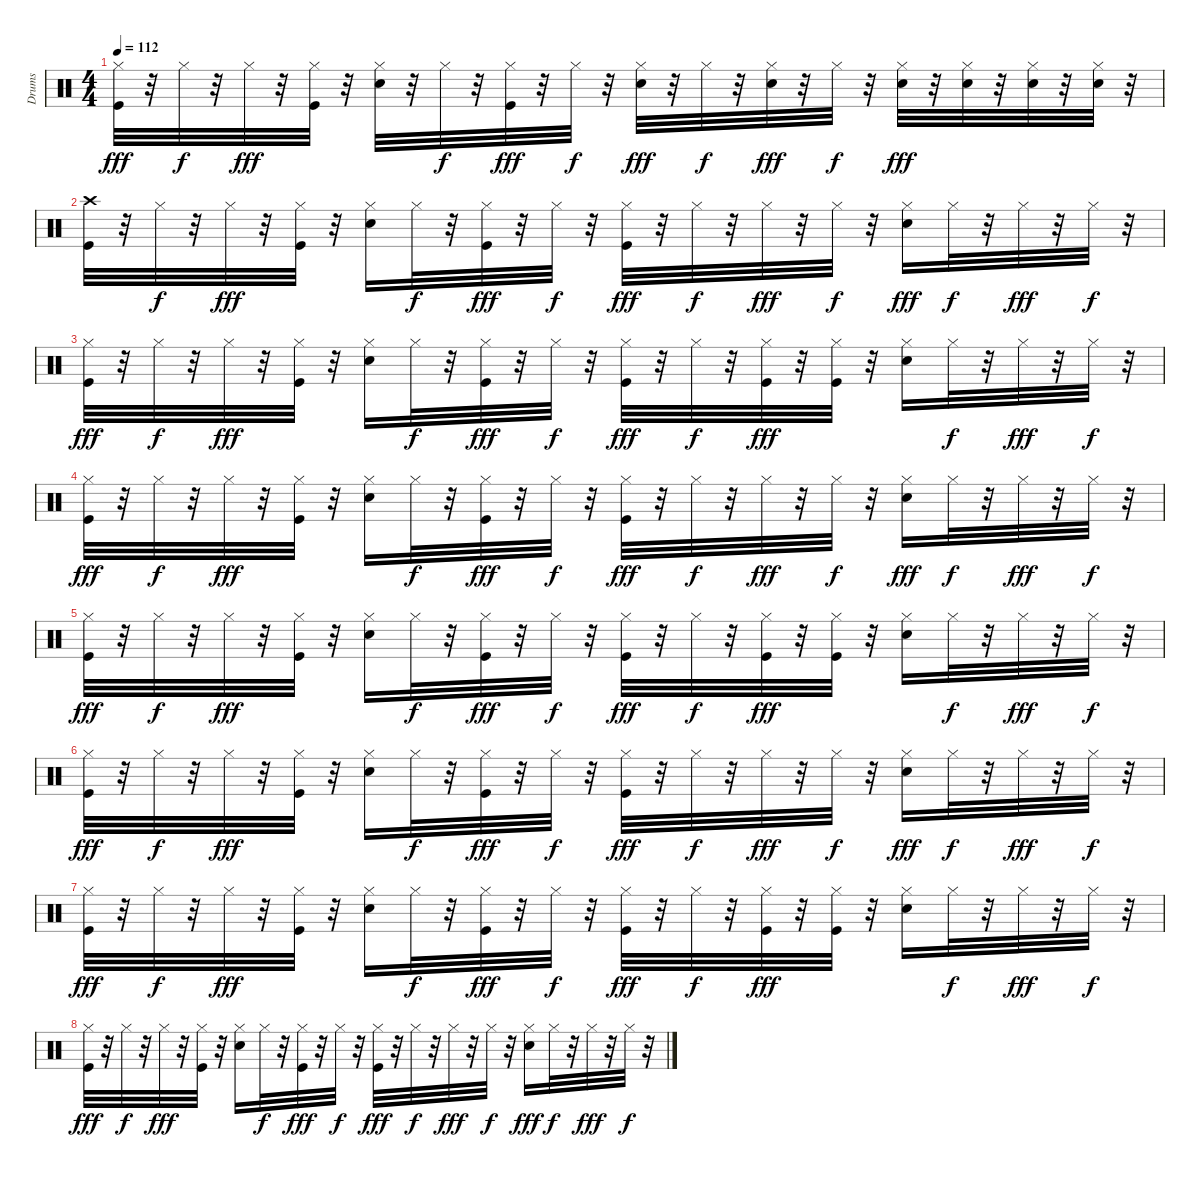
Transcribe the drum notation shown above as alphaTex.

\track ("Drums" "Drums") {instrument percussion}
\staff {score}
\articulation defaults
\ts (4 4)
\tempo 112
\clef neutral
\ks c
("Kick (hit)" "Hi-Hat (closed)").32{dy fff} r.32 "Hi-Hat (closed)".32{dy f} r.32 "Hi-Hat (closed)".32{dy fff} r.32 ("Kick (hit)" "Hi-Hat (closed)").32 r.32 ("Snare (hit) 2" "Hi-Hat (closed)").32 r.32 "Hi-Hat (closed)".32{dy f} r.32 ("Kick (hit)" "Hi-Hat (closed)").32{dy fff} r.32 "Hi-Hat (closed)".32{dy f} r.32 ("Snare (hit) 2" "Hi-Hat (closed)").32{dy fff} r.32 "Hi-Hat (closed)".32{dy f} r.32 ("Snare (hit) 2" "Hi-Hat (closed)").32{dy fff} r.32 "Hi-Hat (closed)".32{dy f} r.32 ("Snare (hit) 2" "Hi-Hat (closed)").32{dy fff} r.32 ("Snare (hit) 2" "Hi-Hat (closed)").32 r.32 ("Snare (hit) 2" "Hi-Hat (closed)").32 r.32 ("Snare (hit) 2" "Hi-Hat (closed)").32 r.32 |
("Kick (hit)" "Crash high (hit)").32 r.32 "Hi-Hat (closed)".32{dy f} r.32 "Hi-Hat (closed)".32{dy fff} r.32 ("Kick (hit)" "Hi-Hat (closed)").32 r.32 ("Snare (hit) 2" "Hi-Hat (closed)").16 "Hi-Hat (closed)".32{dy f} r.32 ("Kick (hit)" "Hi-Hat (closed)").32{dy fff} r.32 "Hi-Hat (closed)".32{dy f} r.32 ("Kick (hit)" "Hi-Hat (closed)").32{dy fff} r.32 "Hi-Hat (closed)".32{dy f} r.32 "Hi-Hat (closed)".32{dy fff} r.32 "Hi-Hat (closed)".32{dy f} r.32 ("Snare (hit) 2" "Hi-Hat (closed)").16{dy fff} "Hi-Hat (closed)".32{dy f} r.32 "Hi-Hat (closed)".32{dy fff} r.32 "Hi-Hat (closed)".32{dy f} r.32 |
("Kick (hit)" "Hi-Hat (closed)").32{dy fff} r.32 "Hi-Hat (closed)".32{dy f} r.32 "Hi-Hat (closed)".32{dy fff} r.32 ("Kick (hit)" "Hi-Hat (closed)").32 r.32 ("Snare (hit) 2" "Hi-Hat (closed)").16 "Hi-Hat (closed)".32{dy f} r.32 ("Kick (hit)" "Hi-Hat (closed)").32{dy fff} r.32 "Hi-Hat (closed)".32{dy f} r.32 ("Kick (hit)" "Hi-Hat (closed)").32{dy fff} r.32 "Hi-Hat (closed)".32{dy f} r.32 ("Kick (hit)" "Hi-Hat (closed)").32{dy fff} r.32 ("Kick (hit)" "Hi-Hat (closed)").32 r.32 ("Snare (hit) 2" "Hi-Hat (closed)").16 "Hi-Hat (closed)".32{dy f} r.32 "Hi-Hat (closed)".32{dy fff} r.32 "Hi-Hat (closed)".32{dy f} r.32 |
("Kick (hit)" "Hi-Hat (closed)").32{dy fff} r.32 "Hi-Hat (closed)".32{dy f} r.32 "Hi-Hat (closed)".32{dy fff} r.32 ("Kick (hit)" "Hi-Hat (closed)").32 r.32 ("Snare (hit) 2" "Hi-Hat (closed)").16 "Hi-Hat (closed)".32{dy f} r.32 ("Kick (hit)" "Hi-Hat (closed)").32{dy fff} r.32 "Hi-Hat (closed)".32{dy f} r.32 ("Kick (hit)" "Hi-Hat (closed)").32{dy fff} r.32 "Hi-Hat (closed)".32{dy f} r.32 "Hi-Hat (closed)".32{dy fff} r.32 "Hi-Hat (closed)".32{dy f} r.32 ("Snare (hit) 2" "Hi-Hat (closed)").16{dy fff} "Hi-Hat (closed)".32{dy f} r.32 "Hi-Hat (closed)".32{dy fff} r.32 "Hi-Hat (closed)".32{dy f} r.32 |
("Kick (hit)" "Hi-Hat (closed)").32{dy fff} r.32 "Hi-Hat (closed)".32{dy f} r.32 "Hi-Hat (closed)".32{dy fff} r.32 ("Kick (hit)" "Hi-Hat (closed)").32 r.32 ("Snare (hit) 2" "Hi-Hat (closed)").16 "Hi-Hat (closed)".32{dy f} r.32 ("Kick (hit)" "Hi-Hat (closed)").32{dy fff} r.32 "Hi-Hat (closed)".32{dy f} r.32 ("Kick (hit)" "Hi-Hat (closed)").32{dy fff} r.32 "Hi-Hat (closed)".32{dy f} r.32 ("Kick (hit)" "Hi-Hat (closed)").32{dy fff} r.32 ("Kick (hit)" "Hi-Hat (closed)").32 r.32 ("Snare (hit) 2" "Hi-Hat (closed)").16 "Hi-Hat (closed)".32{dy f} r.32 "Hi-Hat (closed)".32{dy fff} r.32 "Hi-Hat (closed)".32{dy f} r.32 |
("Kick (hit)" "Hi-Hat (closed)").32{dy fff} r.32 "Hi-Hat (closed)".32{dy f} r.32 "Hi-Hat (closed)".32{dy fff} r.32 ("Kick (hit)" "Hi-Hat (closed)").32 r.32 ("Snare (hit) 2" "Hi-Hat (closed)").16 "Hi-Hat (closed)".32{dy f} r.32 ("Kick (hit)" "Hi-Hat (closed)").32{dy fff} r.32 "Hi-Hat (closed)".32{dy f} r.32 ("Kick (hit)" "Hi-Hat (closed)").32{dy fff} r.32 "Hi-Hat (closed)".32{dy f} r.32 "Hi-Hat (closed)".32{dy fff} r.32 "Hi-Hat (closed)".32{dy f} r.32 ("Snare (hit) 2" "Hi-Hat (closed)").16{dy fff} "Hi-Hat (closed)".32{dy f} r.32 "Hi-Hat (closed)".32{dy fff} r.32 "Hi-Hat (closed)".32{dy f} r.32 |
("Kick (hit)" "Hi-Hat (closed)").32{dy fff} r.32 "Hi-Hat (closed)".32{dy f} r.32 "Hi-Hat (closed)".32{dy fff} r.32 ("Kick (hit)" "Hi-Hat (closed)").32 r.32 ("Snare (hit) 2" "Hi-Hat (closed)").16 "Hi-Hat (closed)".32{dy f} r.32 ("Kick (hit)" "Hi-Hat (closed)").32{dy fff} r.32 "Hi-Hat (closed)".32{dy f} r.32 ("Kick (hit)" "Hi-Hat (closed)").32{dy fff} r.32 "Hi-Hat (closed)".32{dy f} r.32 ("Kick (hit)" "Hi-Hat (closed)").32{dy fff} r.32 ("Kick (hit)" "Hi-Hat (closed)").32 r.32 ("Snare (hit) 2" "Hi-Hat (closed)").16 "Hi-Hat (closed)".32{dy f} r.32 "Hi-Hat (closed)".32{dy fff} r.32 "Hi-Hat (closed)".32{dy f} r.32 |
("Kick (hit)" "Hi-Hat (closed)").32{dy fff} r.32 "Hi-Hat (closed)".32{dy f} r.32 "Hi-Hat (closed)".32{dy fff} r.32 ("Kick (hit)" "Hi-Hat (closed)").32 r.32 ("Snare (hit) 2" "Hi-Hat (closed)").16 "Hi-Hat (closed)".32{dy f} r.32 ("Kick (hit)" "Hi-Hat (closed)").32{dy fff} r.32 "Hi-Hat (closed)".32{dy f} r.32 ("Kick (hit)" "Hi-Hat (closed)").32{dy fff} r.32 "Hi-Hat (closed)".32{dy f} r.32 "Hi-Hat (closed)".32{dy fff} r.32 "Hi-Hat (closed)".32{dy f} r.32 ("Snare (hit) 2" "Hi-Hat (closed)").16{dy fff} "Hi-Hat (closed)".32{dy f} r.32 "Hi-Hat (closed)".32{dy fff} r.32 "Hi-Hat (closed)".32{dy f} r.32
